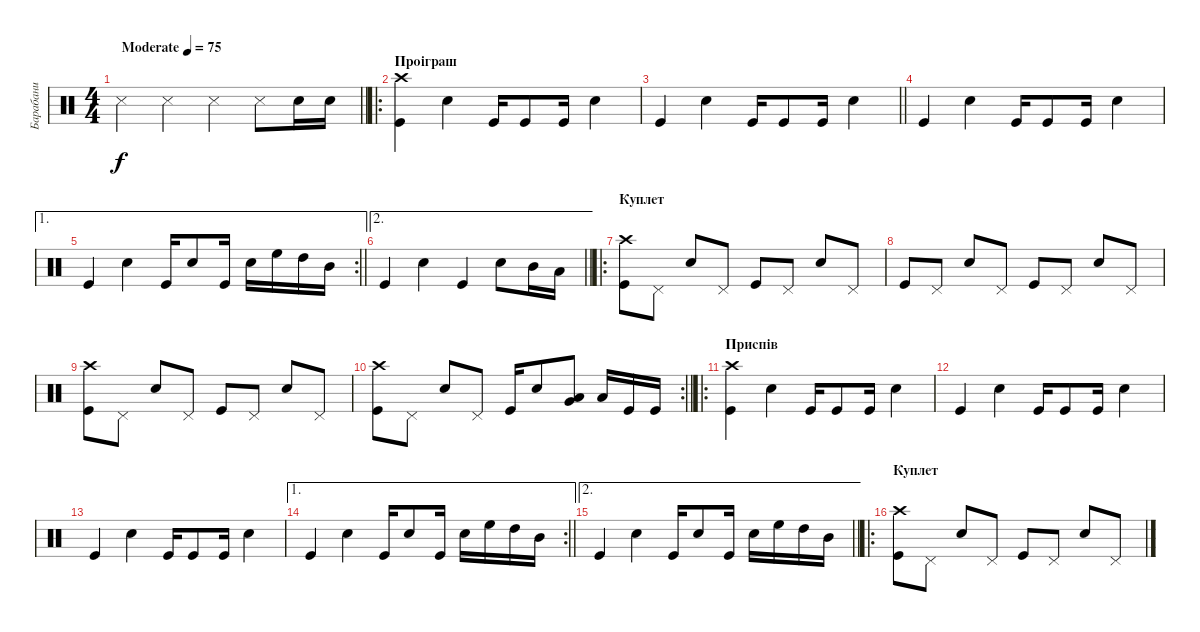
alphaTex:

\track ("Барабани" "Барабани") {instrument percussion}
\staff {score}
\articulation defaults
\ts (4 4)
\tempo (75 "Moderate")
\clef neutral
\barLineRight lightlight
\ks c "Snare (side stick) 3".4{dy f} "Snare (side stick) 3".4 "Snare (side stick) 3".4 "Snare (side stick) 3".8 "Snare (hit) 2".16 "Snare (hit) 2".16
|
\ro
\section ("" "Проіграш")
("Crash high (hit)" "Kick (hit)").4 "Snare (hit) 2".4 "Kick (hit)".16 "Kick (hit)".8 "Kick (hit)".16 "Snare (hit) 2".4 |
\barLineRight lightlight "Kick (hit)".4 "Snare (hit) 2".4 "Kick (hit)".16 "Kick (hit)".8 "Kick (hit)".16 "Snare (hit) 2".4
|
"Kick (hit)".4 "Snare (hit) 2".4 "Kick (hit)".16 "Kick (hit)".8 "Kick (hit)".16 "Snare (hit) 2".4 |
\ae 1
\rc 2
\barLineRight lightlight "Kick (hit)".4 "Snare (hit) 2".4 "Kick (hit)".16 "Snare (hit) 2".8 "Kick (hit)".16 "Snare (hit) 2".16 "High Floor Tom (hit)".16 "High Tom (hit)".16 "Mid Tom (hit)".16
|
\ae 2
\barLineRight lightlight "Kick (hit)".4 "Snare (hit) 2".4 "Kick (hit)".4 "Snare (hit) 2".8 "Mid Tom (hit)".16 "Low Tom (hit)".16
|
\ro
\section ("" "Куплет")
("Kick (hit)" "Crash high (hit)").8 "Pedal Hi-Hat (hit)".8 "Snare (hit) 2".8 "Pedal Hi-Hat (hit)".8 "Kick (hit)".8 "Pedal Hi-Hat (hit)".8 "Snare (hit) 2".8 "Pedal Hi-Hat (hit)".8 |
"Kick (hit)".8 "Pedal Hi-Hat (hit)".8 "Snare (hit) 2".8 "Pedal Hi-Hat (hit)".8 "Kick (hit)".8 "Pedal Hi-Hat (hit)".8 "Snare (hit) 2".8 "Pedal Hi-Hat (hit)".8 |
("Kick (hit)" "Crash high (hit)").8 "Pedal Hi-Hat (hit)".8 "Snare (hit) 2".8 "Pedal Hi-Hat (hit)".8 "Kick (hit)".8 "Pedal Hi-Hat (hit)".8 "Snare (hit) 2".8 "Pedal Hi-Hat (hit)".8 |
\rc 2
\barLineRight lightlight
("Kick (hit)" "Crash high (hit)").8 "Pedal Hi-Hat (hit)".8 "Snare (hit) 2".8 "Pedal Hi-Hat (hit)".8 "Kick (hit)".16 "Snare (hit) 2".8 ("Low Tom (hit)" "Very Low Tom (hit)").8 "Low Floor Tom (hit)".16 "Kick (hit)".16 "Kick (hit)".16 |
\ro
\section ("" "Приспів")
("Crash high (hit)" "Kick (hit)").4 "Snare (hit) 2".4 "Kick (hit)".16 "Kick (hit)".8 "Kick (hit)".16 "Snare (hit) 2".4 |
"Kick (hit)".4 "Snare (hit) 2".4 "Kick (hit)".16 "Kick (hit)".8 "Kick (hit)".16 "Snare (hit) 2".4 |
"Kick (hit)".4 "Snare (hit) 2".4 "Kick (hit)".16 "Kick (hit)".8 "Kick (hit)".16 "Snare (hit) 2".4 |
\ae 1
\rc 2
\barLineRight lightlight "Kick (hit)".4 "Snare (hit) 2".4 "Kick (hit)".16 "Snare (hit) 2".8 "Kick (hit)".16 "Snare (hit) 2".16 "High Floor Tom (hit)".16 "High Tom (hit)".16 "Mid Tom (hit)".16
|
\ae 2
\barLineRight lightlight "Kick (hit)".4 "Snare (hit) 2".4 "Kick (hit)".16 "Snare (hit) 2".8 "Kick (hit)".16 "Snare (hit) 2".16 "High Floor Tom (hit)".16 "High Tom (hit)".16 "Mid Tom (hit)".16
|
\ro
\section ("" "Куплет")
("Kick (hit)" "Crash high (hit)").8 "Pedal Hi-Hat (hit)".8 "Snare (hit) 2".8 "Pedal Hi-Hat (hit)".8 "Kick (hit)".8 "Pedal Hi-Hat (hit)".8 "Snare (hit) 2".8 "Pedal Hi-Hat (hit)".8
